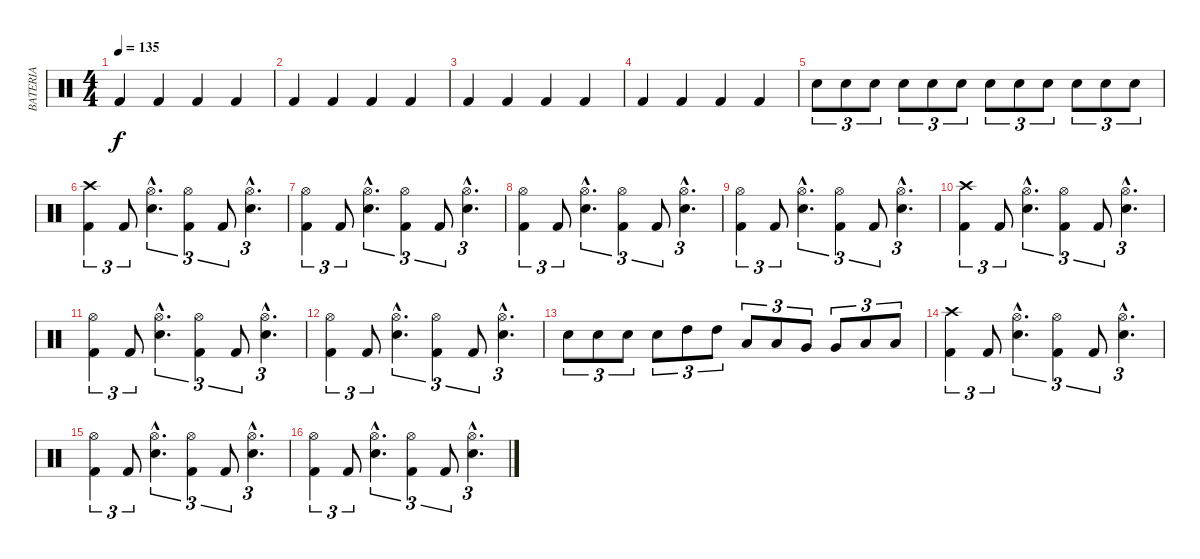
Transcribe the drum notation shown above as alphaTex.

\track ("BATERIA" "BATERIA") {instrument percussion}
\staff {score}
\articulation defaults
\ts (4 4)
\tempo 135
\clef neutral
\ks c "Kick (hit) 2".4{dy f} "Kick (hit) 2".4 "Kick (hit) 2".4 "Kick (hit) 2".4
|
"Kick (hit) 2".4 "Kick (hit) 2".4 "Kick (hit) 2".4 "Kick (hit) 2".4 |
"Kick (hit) 2".4 "Kick (hit) 2".4 "Kick (hit) 2".4 "Kick (hit) 2".4 |
"Kick (hit) 2".4 "Kick (hit) 2".4 "Kick (hit) 2".4 "Kick (hit) 2".4 |
"Snare (hit) 2".8{tu (3 2)} "Snare (hit) 2".8{tu (3 2)} "Snare (hit) 2".8{tu (3 2)} "Snare (hit) 2".8{tu (3 2)} "Snare (hit) 2".8{tu (3 2)} "Snare (hit) 2".8{tu (3 2)} "Snare (hit) 2".8{tu (3 2)} "Snare (hit) 2".8{tu (3 2)} "Snare (hit) 2".8{tu (3 2)} "Snare (hit) 2".8{tu (3 2)} "Snare (hit) 2".8{tu (3 2)} "Snare (hit) 2".8{tu (3 2)} |
("Crash high (hit)" "Kick (hit) 2").4{tu (3 2)} "Kick (hit) 2".8{tu (3 2)} ("Hi-Hat (open)"{hac} "Snare (hit) 2"{hac}).4{d tu (3 2)} ("Hi-Hat (open)" "Kick (hit) 2").4{tu (3 2)} "Kick (hit) 2".8{tu (3 2)} ("Hi-Hat (open)"{hac} "Snare (hit) 2"{hac}).4{d tu (3 2)} |
("Hi-Hat (open)" "Kick (hit) 2").4{tu (3 2)} "Kick (hit) 2".8{tu (3 2)} ("Hi-Hat (open)"{hac} "Snare (hit) 2"{hac}).4{d tu (3 2)} ("Hi-Hat (open)" "Kick (hit) 2").4{tu (3 2)} "Kick (hit) 2".8{tu (3 2)} ("Hi-Hat (open)"{hac} "Snare (hit) 2"{hac}).4{d tu (3 2)} |
("Hi-Hat (open)" "Kick (hit) 2").4{tu (3 2)} "Kick (hit) 2".8{tu (3 2)} ("Hi-Hat (open)"{hac} "Snare (hit) 2"{hac}).4{d tu (3 2)} ("Hi-Hat (open)" "Kick (hit) 2").4{tu (3 2)} "Kick (hit) 2".8{tu (3 2)} ("Hi-Hat (open)"{hac} "Snare (hit) 2"{hac}).4{d tu (3 2)} |
("Hi-Hat (open)" "Kick (hit) 2").4{tu (3 2)} "Kick (hit) 2".8{tu (3 2)} ("Hi-Hat (open)"{hac} "Snare (hit) 2"{hac}).4{d tu (3 2)} ("Hi-Hat (open)" "Kick (hit) 2").4{tu (3 2)} "Kick (hit) 2".8{tu (3 2)} ("Hi-Hat (open)"{hac} "Snare (hit) 2"{hac}).4{d tu (3 2)} |
("Crash high (hit)" "Kick (hit) 2").4{tu (3 2)} "Kick (hit) 2".8{tu (3 2)} ("Hi-Hat (open)"{hac} "Snare (hit) 2"{hac}).4{d tu (3 2)} ("Hi-Hat (open)" "Kick (hit) 2").4{tu (3 2)} "Kick (hit) 2".8{tu (3 2)} ("Hi-Hat (open)"{hac} "Snare (hit) 2"{hac}).4{d tu (3 2)} |
("Hi-Hat (open)" "Kick (hit) 2").4{tu (3 2)} "Kick (hit) 2".8{tu (3 2)} ("Hi-Hat (open)"{hac} "Snare (hit) 2"{hac}).4{d tu (3 2)} ("Hi-Hat (open)" "Kick (hit) 2").4{tu (3 2)} "Kick (hit) 2".8{tu (3 2)} ("Hi-Hat (open)"{hac} "Snare (hit) 2"{hac}).4{d tu (3 2)} |
("Hi-Hat (open)" "Kick (hit) 2").4{tu (3 2)} "Kick (hit) 2".8{tu (3 2)} ("Hi-Hat (open)"{hac} "Snare (hit) 2"{hac}).4{d tu (3 2)} ("Hi-Hat (open)" "Kick (hit) 2").4{tu (3 2)} "Kick (hit) 2".8{tu (3 2)} ("Hi-Hat (open)"{hac} "Snare (hit) 2"{hac}).4{d tu (3 2)} |
"Snare (hit) 2".8{tu (3 2)} "Snare (hit) 2".8{tu (3 2)} "Snare (hit) 2".8{tu (3 2)} "Snare (hit) 2".8{tu (3 2)} "High Tom (hit)".8{tu (3 2)} "High Tom (hit)".8{tu (3 2)} "Low Tom (hit)".8{tu (3 2)} "Low Tom (hit)".8{tu (3 2)} "Very Low Tom (hit)".8{tu (3 2)} "Very Low Tom (hit)".8{tu (3 2)} "Low Floor Tom (hit)".8{tu (3 2)} "Low Floor Tom (hit)".8{tu (3 2)} |
("Crash high (hit)" "Kick (hit) 2").4{tu (3 2)} "Kick (hit) 2".8{tu (3 2)} ("Hi-Hat (open)"{hac} "Snare (hit) 2"{hac}).4{d tu (3 2)} ("Hi-Hat (open)" "Kick (hit) 2").4{tu (3 2)} "Kick (hit) 2".8{tu (3 2)} ("Hi-Hat (open)"{hac} "Snare (hit) 2"{hac}).4{d tu (3 2)} |
("Hi-Hat (open)" "Kick (hit) 2").4{tu (3 2)} "Kick (hit) 2".8{tu (3 2)} ("Hi-Hat (open)"{hac} "Snare (hit) 2"{hac}).4{d tu (3 2)} ("Hi-Hat (open)" "Kick (hit) 2").4{tu (3 2)} "Kick (hit) 2".8{tu (3 2)} ("Hi-Hat (open)"{hac} "Snare (hit) 2"{hac}).4{d tu (3 2)} |
("Hi-Hat (open)" "Kick (hit) 2").4{tu (3 2)} "Kick (hit) 2".8{tu (3 2)} ("Hi-Hat (open)"{hac} "Snare (hit) 2"{hac}).4{d tu (3 2)} ("Hi-Hat (open)" "Kick (hit) 2").4{tu (3 2)} "Kick (hit) 2".8{tu (3 2)} ("Hi-Hat (open)"{hac} "Snare (hit) 2"{hac}).4{d tu (3 2)}
